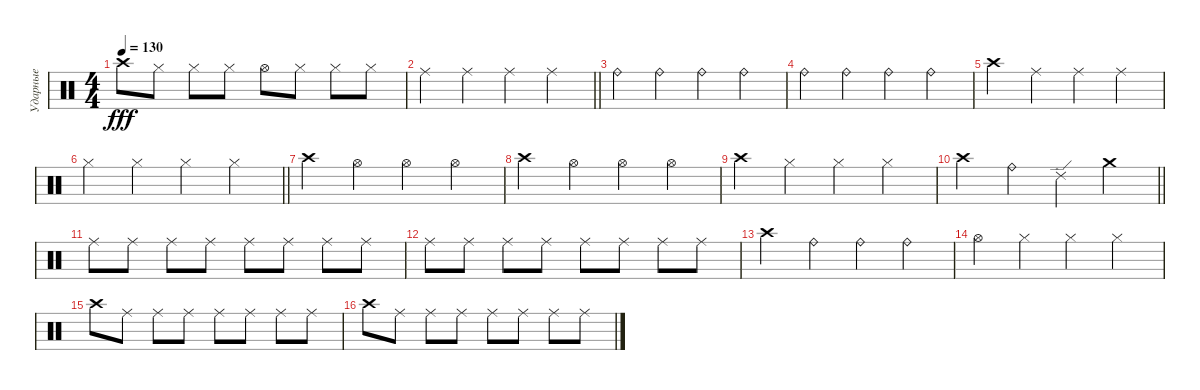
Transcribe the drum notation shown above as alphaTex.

\track ("Ударные" "Ударные") {instrument percussion}
\staff {score}
\articulation defaults
\ts (4 4)
\tempo 130
\clef neutral
\ks c "Crash high (hit)".8{dy fff} "Hi-Hat (closed)".8 "Hi-Hat (closed)".8 "Hi-Hat (closed)".8 "Hi-Hat (open)".8 "Hi-Hat (closed)".8 "Hi-Hat (closed)".8 "Hi-Hat (closed)".8
|
\barLineRight lightlight "Ride (middle)".4 "Ride (middle)".4 "Ride (middle)".4 "Ride (middle)".4
|
"Ride (bell)".4 "Ride (bell)".4 "Ride (bell)".4 "Ride (bell)".4 |
"Ride (bell)".4 "Ride (bell)".4 "Ride (bell)".4 "Ride (bell)".4 |
"Crash high (hit)".4 "Ride (middle)".4 "Ride (middle)".4 "Ride (middle)".4 |
\barLineRight lightlight "Hi-Hat (closed)".4 "Hi-Hat (closed)".4 "Hi-Hat (closed)".4 "Hi-Hat (closed)".4
|
"Crash high (hit)".4 "Hi-Hat (open)".4 "Hi-Hat (open)".4 "Hi-Hat (open)".4 |
"Crash high (hit)".4 "Hi-Hat (open)".4 "Hi-Hat (open)".4 "Hi-Hat (open)".4 |
"Crash high (hit)".4 "Hi-Hat (closed)".4 "Hi-Hat (closed)".4 "Hi-Hat (closed)".4 |
\barLineRight lightlight "Crash high (hit)".4 "Ride (bell)".4 "Ride (edge) 2".4 "Crash medium (hit)".4
|
"Ride (middle)".8 "Ride (middle)".8 "Ride (middle)".8 "Ride (middle)".8 "Ride (middle)".8 "Ride (middle)".8 "Ride (middle)".8 "Ride (middle)".8 |
"Ride (middle)".8 "Ride (middle)".8 "Ride (middle)".8 "Ride (middle)".8 "Ride (middle)".8 "Ride (middle)".8 "Ride (middle)".8 "Ride (middle)".8 |
"Crash high (hit)".4 "Ride (bell)".4 "Ride (bell)".4 "Ride (bell)".4 |
"Hi-Hat (open)".4 "Hi-Hat (closed)".4 "Hi-Hat (closed)".4 "Hi-Hat (closed)".4 |
"Crash high (hit)".8 "Ride (middle)".8 "Ride (middle)".8 "Ride (middle)".8 "Ride (middle)".8 "Ride (middle)".8 "Ride (middle)".8 "Ride (middle)".8 |
"Crash high (hit)".8 "Ride (middle)".8 "Ride (middle)".8 "Ride (middle)".8 "Ride (middle)".8 "Ride (middle)".8 "Ride (middle)".8 "Ride (middle)".8
